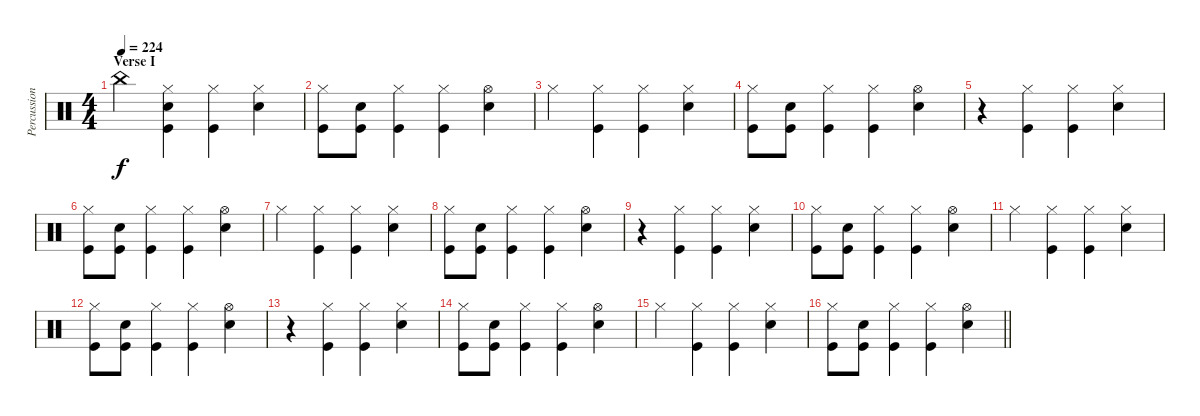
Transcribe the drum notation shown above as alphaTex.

\track ("Percussion" "Percussion") {instrument percussion}
\staff {score}
\articulation defaults
\ts (4 4)
\section ("" "Verse I")
\tempo 224
\clef neutral
\ks c "China (hit)".4{dy f}
("Hi-Hat (closed)" "Electric Snare (hit)" "Kick (hit)").4 ("Hi-Hat (closed)" "Kick (hit)").4 ("Hi-Hat (closed)" "Electric Snare (hit)").4 |
("Hi-Hat (closed)" "Kick (hit)").8 ("Electric Snare (hit)" "Kick (hit)").8 ("Hi-Hat (closed)" "Kick (hit)").4 ("Hi-Hat (closed)" "Kick (hit)").4 ("Hi-Hat (open)" "Electric Snare (hit)").4 |
"Hi-Hat (closed)".4 ("Hi-Hat (closed)" "Kick (hit)").4 ("Hi-Hat (closed)" "Kick (hit)").4 ("Hi-Hat (closed)" "Electric Snare (hit)").4 |
("Hi-Hat (closed)" "Kick (hit)").8 ("Electric Snare (hit)" "Kick (hit)").8 ("Hi-Hat (closed)" "Kick (hit)").4 ("Hi-Hat (closed)" "Kick (hit)").4 ("Hi-Hat (open)" "Electric Snare (hit)").4 |
r.4 ("Hi-Hat (closed)" "Kick (hit)").4 ("Hi-Hat (closed)" "Kick (hit)").4 ("Hi-Hat (closed)" "Electric Snare (hit)").4 |
("Hi-Hat (closed)" "Kick (hit)").8 ("Electric Snare (hit)" "Kick (hit)").8 ("Hi-Hat (closed)" "Kick (hit)").4 ("Hi-Hat (closed)" "Kick (hit)").4 ("Hi-Hat (open)" "Electric Snare (hit)").4 |
"Hi-Hat (closed)".4 ("Hi-Hat (closed)" "Kick (hit)").4 ("Hi-Hat (closed)" "Kick (hit)").4 ("Hi-Hat (closed)" "Electric Snare (hit)").4 |
("Hi-Hat (closed)" "Kick (hit)").8 ("Electric Snare (hit)" "Kick (hit)").8 ("Hi-Hat (closed)" "Kick (hit)").4 ("Hi-Hat (closed)" "Kick (hit)").4 ("Hi-Hat (open)" "Electric Snare (hit)").4 |
r.4 ("Hi-Hat (closed)" "Kick (hit)").4 ("Hi-Hat (closed)" "Kick (hit)").4 ("Hi-Hat (closed)" "Electric Snare (hit)").4 |
("Hi-Hat (closed)" "Kick (hit)").8 ("Electric Snare (hit)" "Kick (hit)").8 ("Hi-Hat (closed)" "Kick (hit)").4 ("Hi-Hat (closed)" "Kick (hit)").4 ("Hi-Hat (open)" "Electric Snare (hit)").4 |
"Hi-Hat (closed)".4 ("Hi-Hat (closed)" "Kick (hit)").4 ("Hi-Hat (closed)" "Kick (hit)").4 ("Hi-Hat (closed)" "Electric Snare (hit)").4 |
("Hi-Hat (closed)" "Kick (hit)").8 ("Electric Snare (hit)" "Kick (hit)").8 ("Hi-Hat (closed)" "Kick (hit)").4 ("Hi-Hat (closed)" "Kick (hit)").4 ("Hi-Hat (open)" "Electric Snare (hit)").4 |
r.4 ("Hi-Hat (closed)" "Kick (hit)").4 ("Hi-Hat (closed)" "Kick (hit)").4 ("Hi-Hat (closed)" "Electric Snare (hit)").4 |
("Hi-Hat (closed)" "Kick (hit)").8 ("Electric Snare (hit)" "Kick (hit)").8 ("Hi-Hat (closed)" "Kick (hit)").4 ("Hi-Hat (closed)" "Kick (hit)").4 ("Hi-Hat (open)" "Electric Snare (hit)").4 |
"Hi-Hat (closed)".4 ("Hi-Hat (closed)" "Kick (hit)").4 ("Hi-Hat (closed)" "Kick (hit)").4 ("Hi-Hat (closed)" "Electric Snare (hit)").4 |
\barLineRight lightlight
("Hi-Hat (closed)" "Kick (hit)").8 ("Electric Snare (hit)" "Kick (hit)").8 ("Hi-Hat (closed)" "Kick (hit)").4 ("Hi-Hat (closed)" "Kick (hit)").4 ("Hi-Hat (open)" "Electric Snare (hit)").4
